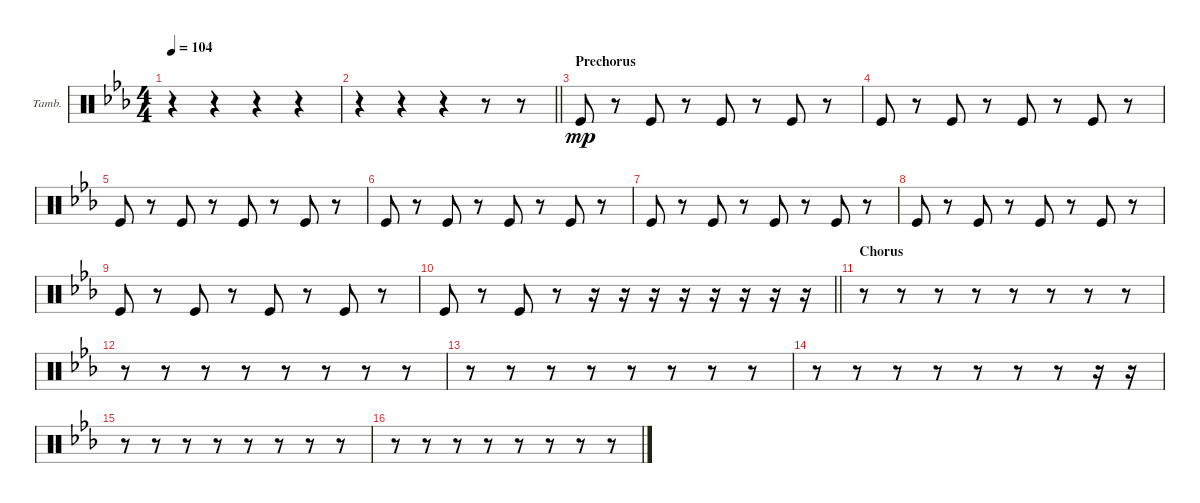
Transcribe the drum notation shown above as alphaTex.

\bracketExtendMode groupsimilarinstruments
\firstSystemTrackNameOrientation horizontal
\otherSystemsTrackNameOrientation horizontal
\track ("Tambourine" "Tamb.") {instrument percussion}
\staff {score}
\articulation defaults
\ts (4 4)
\tempo 104
\clef neutral
\ks eb
r.4{dy mp} r.4 r.4 r.4 |
\barLineRight lightlight
r.4 r.4 r.4 r.8 r.8 |
\section ("" "Prechorus")
"Kick (hit)".8 r.8 "Kick (hit)".8 r.8 "Kick (hit)".8 r.8 "Kick (hit)".8 r.8 |
"Kick (hit)".8 r.8 "Kick (hit)".8 r.8 "Kick (hit)".8 r.8 "Kick (hit)".8 r.8 |
"Kick (hit)".8 r.8 "Kick (hit)".8 r.8 "Kick (hit)".8 r.8 "Kick (hit)".8 r.8 |
"Kick (hit)".8 r.8 "Kick (hit)".8 r.8 "Kick (hit)".8 r.8 "Kick (hit)".8 r.8 |
"Kick (hit)".8 r.8 "Kick (hit)".8 r.8 "Kick (hit)".8 r.8 "Kick (hit)".8 r.8 |
"Kick (hit)".8 r.8 "Kick (hit)".8 r.8 "Kick (hit)".8 r.8 "Kick (hit)".8 r.8 |
"Kick (hit)".8 r.8 "Kick (hit)".8 r.8 "Kick (hit)".8 r.8 "Kick (hit)".8 r.8 |
\barLineRight lightlight "Kick (hit)".8
r.8 "Kick (hit)".8 r.8 r.16 r.16 r.16 r.16 r.16 r.16 r.16 r.16 |
\section ("" "Chorus")
r.8 r.8 r.8 r.8 r.8 r.8 r.8 r.8 |
r.8 r.8 r.8 r.8 r.8 r.8 r.8 r.8 |
r.8 r.8 r.8 r.8 r.8 r.8 r.8 r.8 |
r.8 r.8 r.8 r.8 r.8 r.8 r.8 r.16 r.16 |
r.8 r.8 r.8 r.8 r.8 r.8 r.8 r.8 |
r.8 r.8 r.8 r.8 r.8 r.8 r.8 r.8
